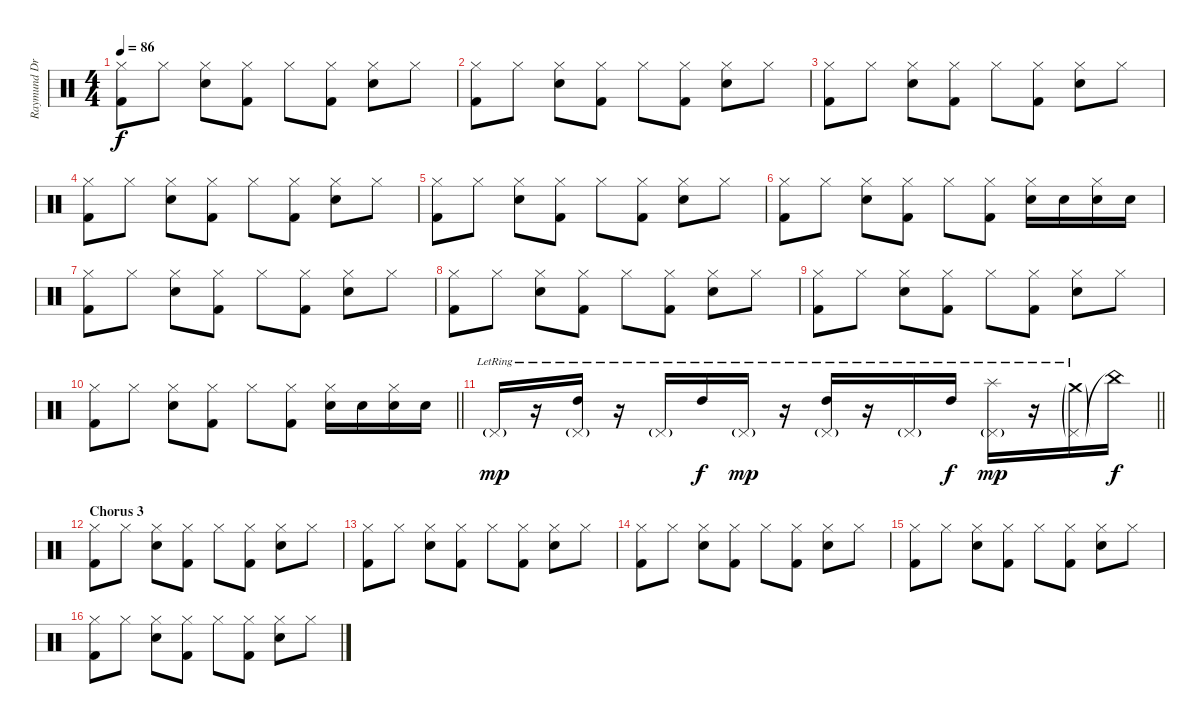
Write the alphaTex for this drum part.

\track ("Raymund Drums" "Raymund Dr") {instrument percussion}
\staff {score}
\articulation defaults
\ts (4 4)
\tempo 86
\clef neutral
\ks c
("Hi-Hat (closed)" "Kick (hit) 2").8{dy f} "Hi-Hat (closed)".8 ("Hi-Hat (closed)" "Snare (hit) 2").8 ("Hi-Hat (closed)" "Kick (hit) 2").8 "Hi-Hat (closed)".8 ("Hi-Hat (closed)" "Kick (hit) 2").8 ("Hi-Hat (closed)" "Snare (hit) 2").8 "Hi-Hat (closed)".8 |
("Hi-Hat (closed)" "Kick (hit) 2").8 "Hi-Hat (closed)".8 ("Hi-Hat (closed)" "Snare (hit) 2").8 ("Hi-Hat (closed)" "Kick (hit) 2").8 "Hi-Hat (closed)".8 ("Hi-Hat (closed)" "Kick (hit) 2").8 ("Hi-Hat (closed)" "Snare (hit) 2").8 "Hi-Hat (closed)".8 |
("Hi-Hat (closed)" "Kick (hit) 2").8 "Hi-Hat (closed)".8 ("Hi-Hat (closed)" "Snare (hit) 2").8 ("Hi-Hat (closed)" "Kick (hit) 2").8 "Hi-Hat (closed)".8 ("Hi-Hat (closed)" "Kick (hit) 2").8 ("Hi-Hat (closed)" "Snare (hit) 2").8 "Hi-Hat (closed)".8 |
("Hi-Hat (closed)" "Kick (hit) 2").8 "Hi-Hat (closed)".8 ("Hi-Hat (closed)" "Snare (hit) 2").8 ("Hi-Hat (closed)" "Kick (hit) 2").8 "Hi-Hat (closed)".8 ("Hi-Hat (closed)" "Kick (hit) 2").8 ("Hi-Hat (closed)" "Snare (hit) 2").8 "Hi-Hat (closed)".8 |
("Hi-Hat (closed)" "Kick (hit) 2").8 "Hi-Hat (closed)".8 ("Hi-Hat (closed)" "Snare (hit) 2").8 ("Hi-Hat (closed)" "Kick (hit) 2").8 "Hi-Hat (closed)".8 ("Hi-Hat (closed)" "Kick (hit) 2").8 ("Hi-Hat (closed)" "Snare (hit) 2").8 "Hi-Hat (closed)".8 |
("Hi-Hat (closed)" "Kick (hit) 2").8 "Hi-Hat (closed)".8 ("Hi-Hat (closed)" "Snare (hit) 2").8 ("Hi-Hat (closed)" "Kick (hit) 2").8 "Hi-Hat (closed)".8 ("Hi-Hat (closed)" "Kick (hit) 2").8 ("Hi-Hat (closed)" "Snare (hit) 2").16 "Snare (hit) 2".16 ("Hi-Hat (closed)" "Snare (hit) 2").16 "Snare (hit) 2".16 |
("Hi-Hat (closed)" "Kick (hit) 2").8 "Hi-Hat (closed)".8 ("Hi-Hat (closed)" "Snare (hit) 2").8 ("Hi-Hat (closed)" "Kick (hit) 2").8 "Hi-Hat (closed)".8 ("Hi-Hat (closed)" "Kick (hit) 2").8 ("Hi-Hat (closed)" "Snare (hit) 2").8 "Hi-Hat (closed)".8 |
("Hi-Hat (closed)" "Kick (hit) 2").8 "Hi-Hat (closed)".8 ("Hi-Hat (closed)" "Snare (hit) 2").8 ("Hi-Hat (closed)" "Kick (hit) 2").8 "Hi-Hat (closed)".8 ("Hi-Hat (closed)" "Kick (hit) 2").8 ("Hi-Hat (closed)" "Snare (hit) 2").8 "Hi-Hat (closed)".8 |
("Hi-Hat (closed)" "Kick (hit) 2").8 "Hi-Hat (closed)".8 ("Hi-Hat (closed)" "Snare (hit) 2").8 ("Hi-Hat (closed)" "Kick (hit) 2").8 "Hi-Hat (closed)".8 ("Hi-Hat (closed)" "Kick (hit) 2").8 ("Hi-Hat (closed)" "Snare (hit) 2").8 "Hi-Hat (closed)".8 |
\barLineRight lightlight
("Hi-Hat (closed)" "Kick (hit) 2").8 "Hi-Hat (closed)".8 ("Hi-Hat (closed)" "Snare (hit) 2").8 ("Hi-Hat (closed)" "Kick (hit) 2").8 "Hi-Hat (closed)".8 ("Hi-Hat (closed)" "Kick (hit) 2").8 ("Hi-Hat (closed)" "Snare (hit) 2").16 "Snare (hit) 2".16 ("Hi-Hat (closed)" "Snare (hit) 2").16 "Snare (hit) 2".16 |
\barLineRight lightlight "Pedal Hi-Hat (hit)"{g lr}.16{dy mp}
r.16 ("Pedal Hi-Hat (hit)"{g lr} "High Tom (hit)"{lr}).16 r.16 "Pedal Hi-Hat (hit)"{g lr}.16 "High Tom (hit)"{lr}.16{dy f} "Pedal Hi-Hat (hit)"{g lr}.16{dy mp} r.16 ("Pedal Hi-Hat (hit)"{g lr} "High Tom (hit)"{lr}).16 r.16 "Pedal Hi-Hat (hit)"{g lr}.16 "High Tom (hit)"{lr}.16{dy f} ("Pedal Hi-Hat (hit)"{g lr} "Splash (hit)"{lr}).16{dy mp} r.16 ("Pedal Hi-Hat (hit)"{g lr} "Crash medium (hit)"{g lr}).16 "China (hit)"{t}.16{dy f} |
\section ("" "Chorus 3")
("Hi-Hat (closed)" "Kick (hit) 2").8 "Hi-Hat (closed)".8 ("Hi-Hat (closed)" "Snare (hit) 2").8 ("Hi-Hat (closed)" "Kick (hit) 2").8 "Hi-Hat (closed)".8 ("Hi-Hat (closed)" "Kick (hit) 2").8 ("Hi-Hat (closed)" "Snare (hit) 2").8 "Hi-Hat (closed)".8 |
("Hi-Hat (closed)" "Kick (hit) 2").8 "Hi-Hat (closed)".8 ("Hi-Hat (closed)" "Snare (hit) 2").8 ("Hi-Hat (closed)" "Kick (hit) 2").8 "Hi-Hat (closed)".8 ("Hi-Hat (closed)" "Kick (hit) 2").8 ("Hi-Hat (closed)" "Snare (hit) 2").8 "Hi-Hat (closed)".8 |
("Hi-Hat (closed)" "Kick (hit) 2").8 "Hi-Hat (closed)".8 ("Hi-Hat (closed)" "Snare (hit) 2").8 ("Hi-Hat (closed)" "Kick (hit) 2").8 "Hi-Hat (closed)".8 ("Hi-Hat (closed)" "Kick (hit) 2").8 ("Hi-Hat (closed)" "Snare (hit) 2").8 "Hi-Hat (closed)".8 |
("Hi-Hat (closed)" "Kick (hit) 2").8 "Hi-Hat (closed)".8 ("Hi-Hat (closed)" "Snare (hit) 2").8 ("Hi-Hat (closed)" "Kick (hit) 2").8 "Hi-Hat (closed)".8 ("Hi-Hat (closed)" "Kick (hit) 2").8 ("Hi-Hat (closed)" "Snare (hit) 2").8 "Hi-Hat (closed)".8 |
("Hi-Hat (closed)" "Kick (hit) 2").8 "Hi-Hat (closed)".8 ("Hi-Hat (closed)" "Snare (hit) 2").8 ("Hi-Hat (closed)" "Kick (hit) 2").8 "Hi-Hat (closed)".8 ("Hi-Hat (closed)" "Kick (hit) 2").8 ("Hi-Hat (closed)" "Snare (hit) 2").8 "Hi-Hat (closed)".8
